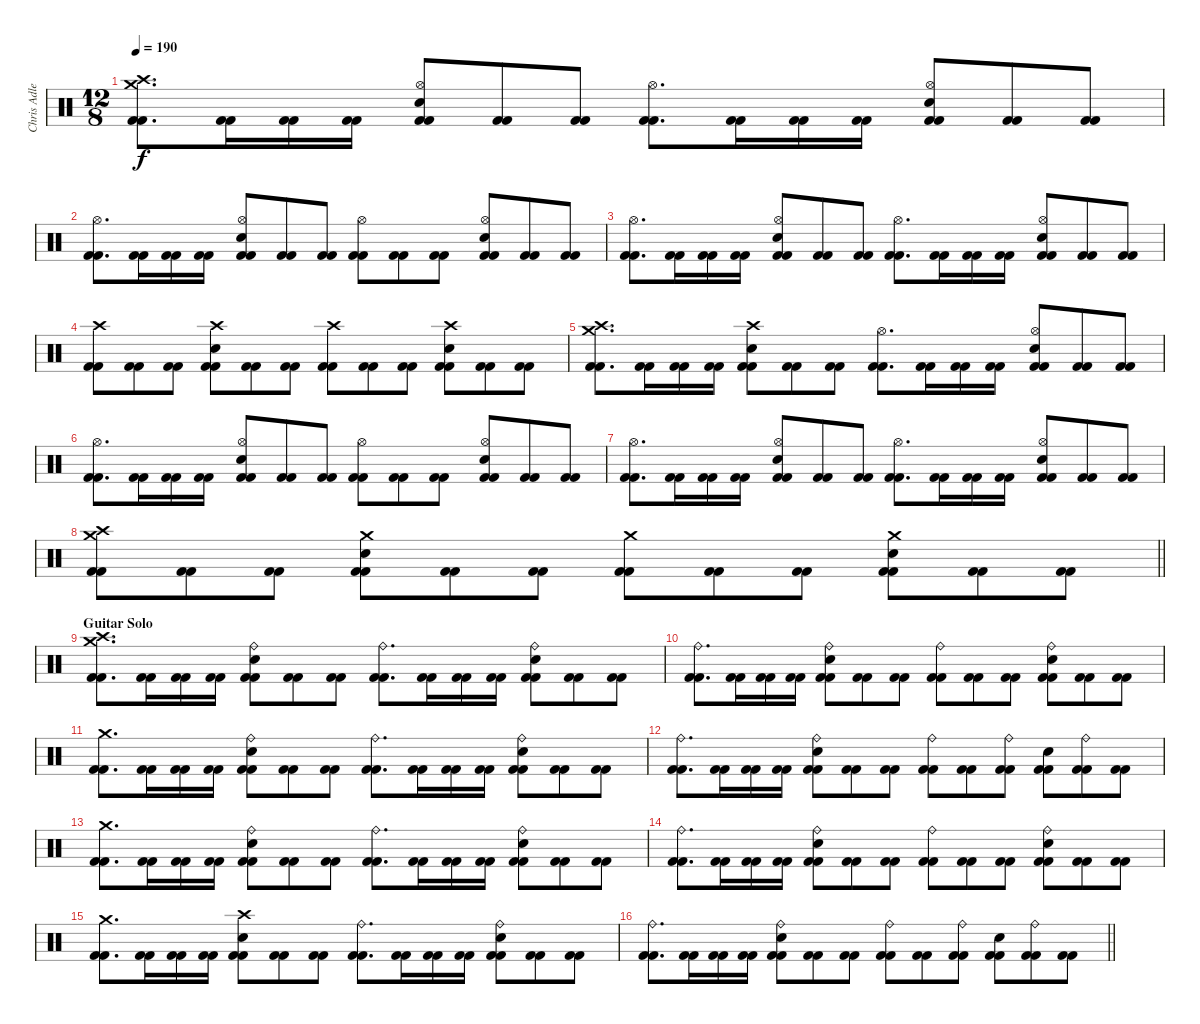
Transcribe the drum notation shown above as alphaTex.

\track ("Chris Adler" "Chris Adle") {instrument percussion}
\staff {score}
\articulation defaults
\ts (12 8)
\tempo 190
\clef neutral
\ks c
("Crash medium (hit)" "Crash high (hit)" "Kick (hit) 2" "Kick (hit) 2").8{d dy f} ("Kick (hit) 2" "Kick (hit) 2").16 ("Kick (hit) 2" "Kick (hit) 2").16 ("Kick (hit) 2" "Kick (hit) 2").16 ("Hi-Hat (open)" "Electric Snare (hit)" "Kick (hit) 2" "Kick (hit) 2").8 ("Kick (hit) 2" "Kick (hit) 2").8 ("Kick (hit) 2" "Kick (hit) 2").8 ("Hi-Hat (open)" "Kick (hit) 2" "Kick (hit) 2").8{d} ("Kick (hit) 2" "Kick (hit) 2").16 ("Kick (hit) 2" "Kick (hit) 2").16 ("Kick (hit) 2" "Kick (hit) 2").16 ("Hi-Hat (open)" "Electric Snare (hit)" "Kick (hit) 2" "Kick (hit) 2").8 ("Kick (hit) 2" "Kick (hit) 2").8 ("Kick (hit) 2" "Kick (hit) 2").8 |
("Hi-Hat (open)" "Kick (hit) 2" "Kick (hit) 2").8{d} ("Kick (hit) 2" "Kick (hit) 2").16 ("Kick (hit) 2" "Kick (hit) 2").16 ("Kick (hit) 2" "Kick (hit) 2").16 ("Hi-Hat (open)" "Electric Snare (hit)" "Kick (hit) 2" "Kick (hit) 2").8 ("Kick (hit) 2" "Kick (hit) 2").8 ("Kick (hit) 2" "Kick (hit) 2").8 ("Hi-Hat (open)" "Kick (hit) 2" "Kick (hit) 2").8 ("Kick (hit) 2" "Kick (hit) 2").8 ("Kick (hit) 2" "Kick (hit) 2").8 ("Hi-Hat (open)" "Electric Snare (hit)" "Kick (hit) 2" "Kick (hit) 2").8 ("Kick (hit) 2" "Kick (hit) 2").8 ("Kick (hit) 2" "Kick (hit) 2").8 |
("Hi-Hat (open)" "Kick (hit) 2" "Kick (hit) 2").8{d} ("Kick (hit) 2" "Kick (hit) 2").16 ("Kick (hit) 2" "Kick (hit) 2").16 ("Kick (hit) 2" "Kick (hit) 2").16 ("Hi-Hat (open)" "Electric Snare (hit)" "Kick (hit) 2" "Kick (hit) 2").8 ("Kick (hit) 2" "Kick (hit) 2").8 ("Kick (hit) 2" "Kick (hit) 2").8 ("Hi-Hat (open)" "Kick (hit) 2" "Kick (hit) 2").8{d} ("Kick (hit) 2" "Kick (hit) 2").16 ("Kick (hit) 2" "Kick (hit) 2").16 ("Kick (hit) 2" "Kick (hit) 2").16 ("Hi-Hat (open)" "Electric Snare (hit)" "Kick (hit) 2" "Kick (hit) 2").8 ("Kick (hit) 2" "Kick (hit) 2").8 ("Kick (hit) 2" "Kick (hit) 2").8 |
("Crash high (hit)" "Kick (hit) 2" "Kick (hit) 2").8 ("Kick (hit) 2" "Kick (hit) 2").8 ("Kick (hit) 2" "Kick (hit) 2").8 ("Crash high (hit)" "Electric Snare (hit)" "Kick (hit) 2" "Kick (hit) 2").8 ("Kick (hit) 2" "Kick (hit) 2").8 ("Kick (hit) 2" "Kick (hit) 2").8 ("Crash high (hit)" "Kick (hit) 2" "Kick (hit) 2").8 ("Kick (hit) 2" "Kick (hit) 2").8 ("Kick (hit) 2" "Kick (hit) 2").8 ("Crash high (hit)" "Electric Snare (hit)" "Kick (hit) 2" "Kick (hit) 2").8 ("Kick (hit) 2" "Kick (hit) 2").8 ("Kick (hit) 2" "Kick (hit) 2").8 |
("Crash medium (hit)" "Crash high (hit)" "Kick (hit) 2" "Kick (hit) 2").8{d} ("Kick (hit) 2" "Kick (hit) 2").16 ("Kick (hit) 2" "Kick (hit) 2").16 ("Kick (hit) 2" "Kick (hit) 2").16 ("Crash high (hit)" "Electric Snare (hit)" "Kick (hit) 2" "Kick (hit) 2").8 ("Kick (hit) 2" "Kick (hit) 2").8 ("Kick (hit) 2" "Kick (hit) 2").8 ("Hi-Hat (open)" "Kick (hit) 2" "Kick (hit) 2").8{d} ("Kick (hit) 2" "Kick (hit) 2").16 ("Kick (hit) 2" "Kick (hit) 2").16 ("Kick (hit) 2" "Kick (hit) 2").16 ("Hi-Hat (open)" "Electric Snare (hit)" "Kick (hit) 2" "Kick (hit) 2").8 ("Kick (hit) 2" "Kick (hit) 2").8 ("Kick (hit) 2" "Kick (hit) 2").8 |
("Hi-Hat (open)" "Kick (hit) 2" "Kick (hit) 2").8{d} ("Kick (hit) 2" "Kick (hit) 2").16 ("Kick (hit) 2" "Kick (hit) 2").16 ("Kick (hit) 2" "Kick (hit) 2").16 ("Hi-Hat (open)" "Electric Snare (hit)" "Kick (hit) 2" "Kick (hit) 2").8 ("Kick (hit) 2" "Kick (hit) 2").8 ("Kick (hit) 2" "Kick (hit) 2").8 ("Hi-Hat (open)" "Kick (hit) 2" "Kick (hit) 2").8 ("Kick (hit) 2" "Kick (hit) 2").8 ("Kick (hit) 2" "Kick (hit) 2").8 ("Hi-Hat (open)" "Electric Snare (hit)" "Kick (hit) 2" "Kick (hit) 2").8 ("Kick (hit) 2" "Kick (hit) 2").8 ("Kick (hit) 2" "Kick (hit) 2").8 |
("Hi-Hat (open)" "Kick (hit) 2" "Kick (hit) 2").8{d} ("Kick (hit) 2" "Kick (hit) 2").16 ("Kick (hit) 2" "Kick (hit) 2").16 ("Kick (hit) 2" "Kick (hit) 2").16 ("Hi-Hat (open)" "Electric Snare (hit)" "Kick (hit) 2" "Kick (hit) 2").8 ("Kick (hit) 2" "Kick (hit) 2").8 ("Kick (hit) 2" "Kick (hit) 2").8 ("Hi-Hat (open)" "Kick (hit) 2" "Kick (hit) 2").8{d} ("Kick (hit) 2" "Kick (hit) 2").16 ("Kick (hit) 2" "Kick (hit) 2").16 ("Kick (hit) 2" "Kick (hit) 2").16 ("Hi-Hat (open)" "Electric Snare (hit)" "Kick (hit) 2" "Kick (hit) 2").8 ("Kick (hit) 2" "Kick (hit) 2").8 ("Kick (hit) 2" "Kick (hit) 2").8 |
\barLineRight lightlight
("Crash medium (hit)" "Crash high (hit)" "Kick (hit) 2" "Kick (hit) 2").8 ("Kick (hit) 2" "Kick (hit) 2").8 ("Kick (hit) 2" "Kick (hit) 2").8 ("Crash medium (hit)" "Electric Snare (hit)" "Kick (hit) 2" "Kick (hit) 2").8 ("Kick (hit) 2" "Kick (hit) 2").8 ("Kick (hit) 2" "Kick (hit) 2").8 ("Crash medium (hit)" "Kick (hit) 2" "Kick (hit) 2").8 ("Kick (hit) 2" "Kick (hit) 2").8 ("Kick (hit) 2" "Kick (hit) 2").8 ("Crash medium (hit)" "Electric Snare (hit)" "Kick (hit) 2" "Kick (hit) 2").8 ("Kick (hit) 2" "Kick (hit) 2").8 ("Kick (hit) 2" "Kick (hit) 2").8 |
\section ("" "Guitar Solo")
("Crash medium (hit)" "Crash high (hit)" "Kick (hit) 2" "Kick (hit) 2").8{d} ("Kick (hit) 2" "Kick (hit) 2").16 ("Kick (hit) 2" "Kick (hit) 2").16 ("Kick (hit) 2" "Kick (hit) 2").16 ("Ride (bell)" "Electric Snare (hit)" "Kick (hit) 2" "Kick (hit) 2").8 ("Kick (hit) 2" "Kick (hit) 2").8 ("Kick (hit) 2" "Kick (hit) 2").8 ("Ride (bell)" "Kick (hit) 2" "Kick (hit) 2").8{d} ("Kick (hit) 2" "Kick (hit) 2").16 ("Kick (hit) 2" "Kick (hit) 2").16 ("Kick (hit) 2" "Kick (hit) 2").16 ("Ride (bell)" "Electric Snare (hit)" "Kick (hit) 2" "Kick (hit) 2").8 ("Kick (hit) 2" "Kick (hit) 2").8 ("Kick (hit) 2" "Kick (hit) 2").8 |
("Ride (bell)" "Kick (hit) 2" "Kick (hit) 2").8{d} ("Kick (hit) 2" "Kick (hit) 2").16 ("Kick (hit) 2" "Kick (hit) 2").16 ("Kick (hit) 2" "Kick (hit) 2").16 ("Ride (bell)" "Electric Snare (hit)" "Kick (hit) 2" "Kick (hit) 2").8 ("Kick (hit) 2" "Kick (hit) 2").8 ("Kick (hit) 2" "Kick (hit) 2").8 ("Ride (bell)" "Kick (hit) 2" "Kick (hit) 2").8 ("Kick (hit) 2" "Kick (hit) 2").8 ("Kick (hit) 2" "Kick (hit) 2").8 ("Ride (bell)" "Electric Snare (hit)" "Kick (hit) 2" "Kick (hit) 2").8 ("Kick (hit) 2" "Kick (hit) 2").8 ("Kick (hit) 2" "Kick (hit) 2").8 |
("Crash medium (hit)" "Kick (hit) 2" "Kick (hit) 2").8{d} ("Kick (hit) 2" "Kick (hit) 2").16 ("Kick (hit) 2" "Kick (hit) 2").16 ("Kick (hit) 2" "Kick (hit) 2").16 ("Ride (bell)" "Electric Snare (hit)" "Kick (hit) 2" "Kick (hit) 2").8 ("Kick (hit) 2" "Kick (hit) 2").8 ("Kick (hit) 2" "Kick (hit) 2").8 ("Ride (bell)" "Kick (hit) 2" "Kick (hit) 2").8{d} ("Kick (hit) 2" "Kick (hit) 2").16 ("Kick (hit) 2" "Kick (hit) 2").16 ("Kick (hit) 2" "Kick (hit) 2").16 ("Ride (bell)" "Electric Snare (hit)" "Kick (hit) 2" "Kick (hit) 2").8 ("Kick (hit) 2" "Kick (hit) 2").8 ("Kick (hit) 2" "Kick (hit) 2").8 |
("Ride (bell)" "Kick (hit) 2" "Kick (hit) 2").8{d} ("Kick (hit) 2" "Kick (hit) 2").16 ("Kick (hit) 2" "Kick (hit) 2").16 ("Kick (hit) 2" "Kick (hit) 2").16 ("Ride (bell)" "Electric Snare (hit)" "Kick (hit) 2" "Kick (hit) 2").8 ("Kick (hit) 2" "Kick (hit) 2").8 ("Kick (hit) 2" "Kick (hit) 2").8 ("Ride (bell)" "Kick (hit) 2" "Kick (hit) 2").8 ("Kick (hit) 2" "Kick (hit) 2").8 ("Ride (bell)" "Kick (hit) 2" "Kick (hit) 2").8 ("Electric Snare (hit)" "Kick (hit) 2" "Kick (hit) 2").8 ("Ride (bell)" "Kick (hit) 2" "Kick (hit) 2").8 ("Kick (hit) 2" "Kick (hit) 2").8 |
("Crash medium (hit)" "Kick (hit) 2" "Kick (hit) 2").8{d} ("Kick (hit) 2" "Kick (hit) 2").16 ("Kick (hit) 2" "Kick (hit) 2").16 ("Kick (hit) 2" "Kick (hit) 2").16 ("Ride (bell)" "Electric Snare (hit)" "Kick (hit) 2" "Kick (hit) 2").8 ("Kick (hit) 2" "Kick (hit) 2").8 ("Kick (hit) 2" "Kick (hit) 2").8 ("Ride (bell)" "Kick (hit) 2" "Kick (hit) 2").8{d} ("Kick (hit) 2" "Kick (hit) 2").16 ("Kick (hit) 2" "Kick (hit) 2").16 ("Kick (hit) 2" "Kick (hit) 2").16 ("Ride (bell)" "Electric Snare (hit)" "Kick (hit) 2" "Kick (hit) 2").8 ("Kick (hit) 2" "Kick (hit) 2").8 ("Kick (hit) 2" "Kick (hit) 2").8 |
("Ride (bell)" "Kick (hit) 2" "Kick (hit) 2").8{d} ("Kick (hit) 2" "Kick (hit) 2").16 ("Kick (hit) 2" "Kick (hit) 2").16 ("Kick (hit) 2" "Kick (hit) 2").16 ("Ride (bell)" "Electric Snare (hit)" "Kick (hit) 2" "Kick (hit) 2").8 ("Kick (hit) 2" "Kick (hit) 2").8 ("Kick (hit) 2" "Kick (hit) 2").8 ("Ride (bell)" "Kick (hit) 2" "Kick (hit) 2").8 ("Kick (hit) 2" "Kick (hit) 2").8 ("Kick (hit) 2" "Kick (hit) 2").8 ("Ride (bell)" "Electric Snare (hit)" "Kick (hit) 2" "Kick (hit) 2").8 ("Kick (hit) 2" "Kick (hit) 2").8 ("Kick (hit) 2" "Kick (hit) 2").8 |
("Crash medium (hit)" "Kick (hit) 2" "Kick (hit) 2").8{d} ("Kick (hit) 2" "Kick (hit) 2").16 ("Kick (hit) 2" "Kick (hit) 2").16 ("Kick (hit) 2" "Kick (hit) 2").16 ("Crash high (hit)" "Electric Snare (hit)" "Kick (hit) 2" "Kick (hit) 2").8 ("Kick (hit) 2" "Kick (hit) 2").8 ("Kick (hit) 2" "Kick (hit) 2").8 ("Ride (bell)" "Kick (hit) 2" "Kick (hit) 2").8{d} ("Kick (hit) 2" "Kick (hit) 2").16 ("Kick (hit) 2" "Kick (hit) 2").16 ("Kick (hit) 2" "Kick (hit) 2").16 ("Ride (bell)" "Electric Snare (hit)" "Kick (hit) 2" "Kick (hit) 2").8 ("Kick (hit) 2" "Kick (hit) 2").8 ("Kick (hit) 2" "Kick (hit) 2").8 |
\barLineRight lightlight
("Ride (bell)" "Kick (hit) 2" "Kick (hit) 2").8{d} ("Kick (hit) 2" "Kick (hit) 2").16 ("Kick (hit) 2" "Kick (hit) 2").16 ("Kick (hit) 2" "Kick (hit) 2").16 ("Ride (bell)" "Electric Snare (hit)" "Kick (hit) 2" "Kick (hit) 2").8 ("Kick (hit) 2" "Kick (hit) 2").8 ("Kick (hit) 2" "Kick (hit) 2").8 ("Ride (bell)" "Kick (hit) 2" "Kick (hit) 2").8 ("Kick (hit) 2" "Kick (hit) 2").8 ("Ride (bell)" "Kick (hit) 2" "Kick (hit) 2").8 ("Electric Snare (hit)" "Kick (hit) 2" "Kick (hit) 2").8 ("Ride (bell)" "Kick (hit) 2" "Kick (hit) 2").8 ("Kick (hit) 2" "Kick (hit) 2").8
